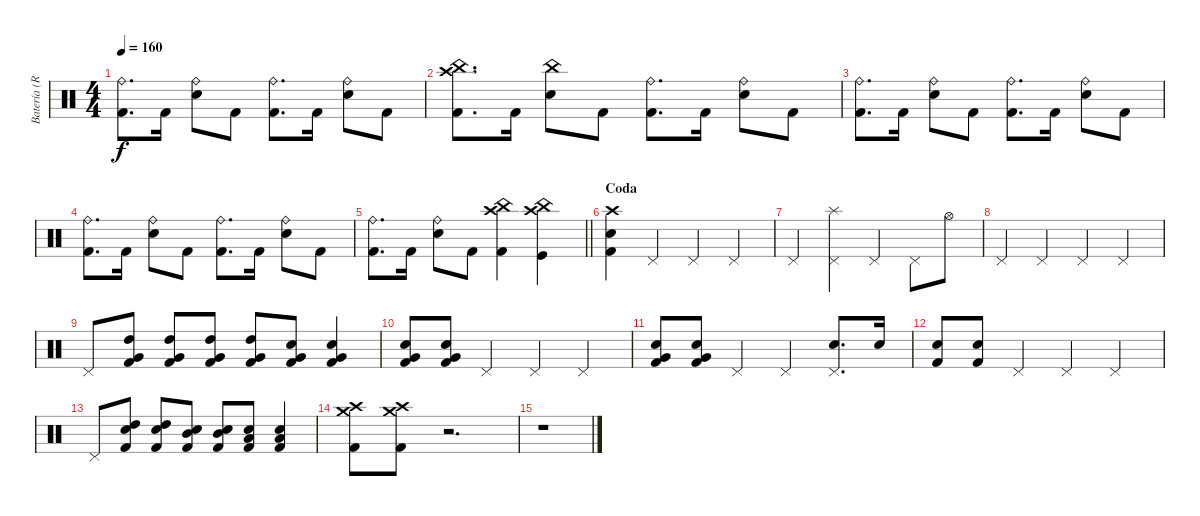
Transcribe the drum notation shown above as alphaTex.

\track ("Batería (Robert)" "Batería (R") {instrument percussion}
\staff {score}
\articulation defaults
\ts (4 4)
\tempo 160
\clef neutral
\ks c
("Ride (bell)" "Kick (hit) 2").8{d dy f} "Kick (hit) 2".16 ("Ride (bell)" "Electric Snare (hit)").8 "Kick (hit) 2".8 ("Kick (hit) 2" "Ride (bell)").8{d} "Kick (hit) 2".16 ("Ride (bell)" "Electric Snare (hit)").8 "Kick (hit) 2".8 |
("Crash high (hit)" "China (hit)" "Kick (hit) 2").8{d} "Kick (hit) 2".16 ("China (hit)" "Electric Snare (hit)").8 "Kick (hit) 2".8 ("Kick (hit) 2" "Ride (bell)").8{d} "Kick (hit) 2".16 ("Ride (bell)" "Electric Snare (hit)").8 "Kick (hit) 2".8 |
("Ride (bell)" "Kick (hit) 2").8{d} "Kick (hit) 2".16 ("Ride (bell)" "Electric Snare (hit)").8 "Kick (hit) 2".8 ("Kick (hit) 2" "Ride (bell)").8{d} "Kick (hit) 2".16 ("Ride (bell)" "Electric Snare (hit)").8 "Kick (hit) 2".8 |
("Ride (bell)" "Kick (hit) 2").8{d} "Kick (hit) 2".16 ("Ride (bell)" "Electric Snare (hit)").8 "Kick (hit) 2".8 ("Kick (hit) 2" "Ride (bell)").8{d} "Kick (hit) 2".16 ("Ride (bell)" "Electric Snare (hit)").8 "Kick (hit) 2".8 |
\barLineRight lightlight
("Ride (bell)" "Kick (hit) 2").8{d} "Kick (hit) 2".16 ("Ride (bell)" "Electric Snare (hit)").8 "Kick (hit) 2".8 ("Kick (hit) 2" "Crash high (hit)" "China (hit)").4 ("China (hit)" "Kick (hit)" "Crash high (hit)").4 |
\section ("" "Coda")
("Kick (hit) 2" "Electric Snare (hit)" "Crash high (hit)").4 "Pedal Hi-Hat (hit)".4 "Pedal Hi-Hat (hit)".4 "Pedal Hi-Hat (hit)".4 |
"Pedal Hi-Hat (hit)".4 ("Splash (hit)" "Pedal Hi-Hat (hit)").4 "Pedal Hi-Hat (hit)".4 "Pedal Hi-Hat (hit)".8 "Hi-Hat (open)".8 |
"Pedal Hi-Hat (hit)".4 "Pedal Hi-Hat (hit)".4 "Pedal Hi-Hat (hit)".4 "Pedal Hi-Hat (hit)".4 |
"Pedal Hi-Hat (hit)".8 ("Kick (hit) 2" "High Tom (hit)" "Very Low Tom (hit)").8 ("Kick (hit) 2" "High Tom (hit)" "Very Low Tom (hit)").8 ("Kick (hit) 2" "High Tom (hit)" "Very Low Tom (hit)").8 ("Kick (hit) 2" "High Tom (hit)" "Very Low Tom (hit)").8 ("Kick (hit) 2" "Very Low Tom (hit)" "Electric Snare (hit)").8 ("Kick (hit) 2" "Very Low Tom (hit)" "Electric Snare (hit)").4 |
("Kick (hit) 2" "Electric Snare (hit)" "Very Low Tom (hit)").8 ("Kick (hit) 2" "Electric Snare (hit)" "Very Low Tom (hit)").8 "Pedal Hi-Hat (hit)".4 "Pedal Hi-Hat (hit)".4 "Pedal Hi-Hat (hit)".4 |
("Kick (hit) 2" "Electric Snare (hit)" "Very Low Tom (hit)").8 ("Kick (hit) 2" "Electric Snare (hit)" "Very Low Tom (hit)").8 "Pedal Hi-Hat (hit)".4 "Pedal Hi-Hat (hit)".4 ("Electric Snare (hit)" "Pedal Hi-Hat (hit)").8{d} "Electric Snare (hit)".16 |
("Kick (hit) 2" "Electric Snare (hit)").8 ("Kick (hit) 2" "Electric Snare (hit)").8 "Pedal Hi-Hat (hit)".4 "Pedal Hi-Hat (hit)".4 "Pedal Hi-Hat (hit)".4 |
"Pedal Hi-Hat (hit)".8 ("Kick (hit) 2" "Electric Snare (hit)" "High Tom (hit)").8 ("Kick (hit) 2" "Electric Snare (hit)" "High Tom (hit)").8 ("Kick (hit) 2" "Electric Snare (hit)" "Mid Tom (hit)").8 ("Kick (hit) 2" "Electric Snare (hit)" "Mid Tom (hit)").8 ("Kick (hit) 2" "Electric Snare (hit)" "Low Tom (hit)").8 ("Kick (hit) 2" "Electric Snare (hit)" "Low Tom (hit)").4 |
("Kick (hit) 2" "Crash high (hit)" "Crash medium (hit)").8 ("Kick (hit) 2" "Crash high (hit)" "Crash medium (hit)").8 r.2{d} |
r.1
